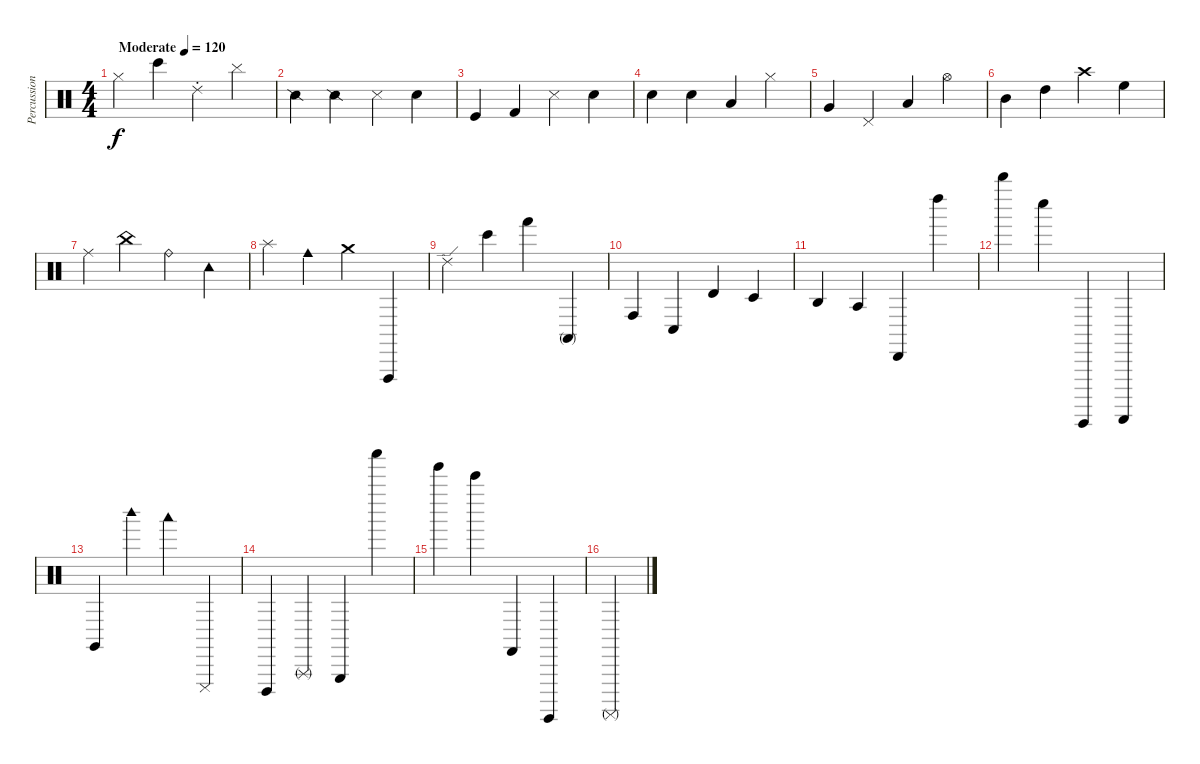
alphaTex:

\track ("Percussion" "Percussion") {instrument percussion}
\staff {score}
\articulation defaults
\ts (4 4)
\tempo (120 "Moderate")
\clef neutral
\ks c "Hi-Hat (closed)".4{dy f} "Bongo High (hit)".4 "Ride (choke) 2".4 "Cymbal (hit)".4
|
"Snare (side stick) 2".4 "Snare (side stick) 2".4 "Metronome (hit)".4 "Metronome (bell)".4 |
"Kick (hit)".4 "Kick (hit) 2".4 "Snare (side stick) 3".4 "Snare (hit) 2".4 |
"Hand Clap (hit)".4 "Electric Snare (hit)".4 "Low Floor Tom (hit)".4 "Hi-Hat (closed)".4 |
"Very Low Tom (hit)".4 "Pedal Hi-Hat (hit)".4 "Low Tom (hit)".4 "Hi-Hat (open)".4 |
"Mid Tom (hit)".4 "High Tom (hit)".4 "Crash high (hit)".4 "High Floor Tom (hit)".4 |
"Ride (middle)".4 "China (hit)".4 "Ride (bell)".4 "Tambourine (hit)".4 |
"Splash (hit)".4 "Cowbell medium (hit)".4 "Crash medium (hit)".4 "Vibraslap (hit)".4 |
"Ride (edge) 2".4 "Bongo High (hit)".4 "Hand (hit)".4 "Conga high (mute)".4 |
"Conga high (hit)".4 "Conga low (hit)".4 "Timbale high (hit)".4 "Timbale low (hit)".4 |
"Agogo high (hit)".4 "Agogo tow (hit)".4 "Cabasa (hit)".4 "Left Maraca (hit)".4 |
"Whistle high (hit)".4 "Whistle low (hit)".4 "Guiro (hit)".4 "Guiro (scrap-return)".4 |
"Claves (hit)".4 "Woodblock high (hit)".4 "Woodblock low (hit)".4 "Cuica (mute)".4 |
"Cuica (open)".4 "Triangle (rnute)".4 "Triangle (hit)".4 "Shaker (hit)".4 |
"Tinkle Bell (hit)".4 "Bell Tree (hit)".4 "Castanets (hit)".4 "Surdo (hit)".4 |
"Surdo (mute)".4
